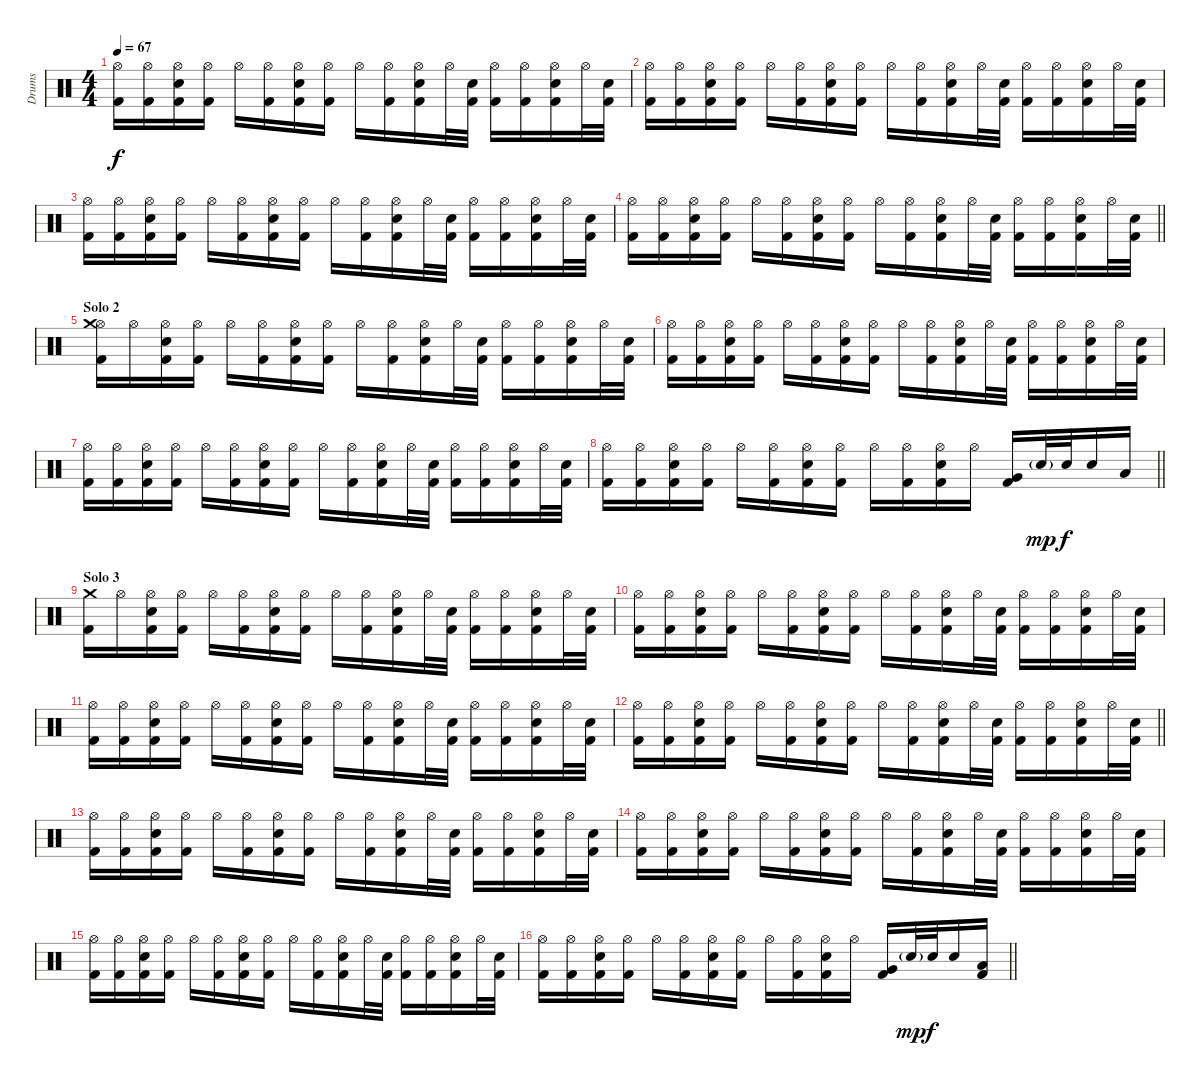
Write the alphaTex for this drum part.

\track ("Drums" "Drums") {instrument percussion}
\staff {score}
\articulation defaults
\ts (4 4)
\tempo 67
\clef neutral
\ks c
("Kick (hit) 2" "Hi-Hat (open)").16{dy f} ("Kick (hit) 2" "Hi-Hat (open)").16 ("Kick (hit) 2" "Snare (hit) 2" "Hi-Hat (open)").16 ("Kick (hit) 2" "Hi-Hat (open)").16 "Hi-Hat (open)".16 ("Kick (hit) 2" "Hi-Hat (open)").16 ("Kick (hit) 2" "Snare (hit) 2" "Hi-Hat (open)").16 ("Kick (hit) 2" "Hi-Hat (open)").16 "Hi-Hat (open)".16 ("Kick (hit) 2" "Hi-Hat (open)").16 ("Kick (hit) 2" "Snare (hit) 2" "Hi-Hat (open)").16 "Hi-Hat (open)".32 ("Kick (hit) 2" "Snare (hit) 2").32 ("Kick (hit) 2" "Hi-Hat (open)").16 ("Kick (hit) 2" "Hi-Hat (open)").16 ("Kick (hit) 2" "Snare (hit) 2" "Hi-Hat (open)").16 "Hi-Hat (open)".32 ("Kick (hit) 2" "Snare (hit) 2").32 |
("Kick (hit) 2" "Hi-Hat (open)").16 ("Kick (hit) 2" "Hi-Hat (open)").16 ("Kick (hit) 2" "Snare (hit) 2" "Hi-Hat (open)").16 ("Kick (hit) 2" "Hi-Hat (open)").16 "Hi-Hat (open)".16 ("Kick (hit) 2" "Hi-Hat (open)").16 ("Kick (hit) 2" "Snare (hit) 2" "Hi-Hat (open)").16 ("Kick (hit) 2" "Hi-Hat (open)").16 "Hi-Hat (open)".16 ("Kick (hit) 2" "Hi-Hat (open)").16 ("Kick (hit) 2" "Snare (hit) 2" "Hi-Hat (open)").16 "Hi-Hat (open)".32 ("Kick (hit) 2" "Snare (hit) 2").32 ("Kick (hit) 2" "Hi-Hat (open)").16 ("Kick (hit) 2" "Hi-Hat (open)").16 ("Kick (hit) 2" "Snare (hit) 2" "Hi-Hat (open)").16 "Hi-Hat (open)".32 ("Kick (hit) 2" "Snare (hit) 2").32 |
("Kick (hit) 2" "Hi-Hat (open)").16 ("Kick (hit) 2" "Hi-Hat (open)").16 ("Kick (hit) 2" "Snare (hit) 2" "Hi-Hat (open)").16 ("Kick (hit) 2" "Hi-Hat (open)").16 "Hi-Hat (open)".16 ("Kick (hit) 2" "Hi-Hat (open)").16 ("Kick (hit) 2" "Snare (hit) 2" "Hi-Hat (open)").16 ("Kick (hit) 2" "Hi-Hat (open)").16 "Hi-Hat (open)".16 ("Kick (hit) 2" "Hi-Hat (open)").16 ("Kick (hit) 2" "Snare (hit) 2" "Hi-Hat (open)").16 "Hi-Hat (open)".32 ("Kick (hit) 2" "Snare (hit) 2").32 ("Kick (hit) 2" "Hi-Hat (open)").16 ("Kick (hit) 2" "Hi-Hat (open)").16 ("Kick (hit) 2" "Snare (hit) 2" "Hi-Hat (open)").16 "Hi-Hat (open)".32 ("Kick (hit) 2" "Snare (hit) 2").32 |
\barLineRight lightlight
("Kick (hit) 2" "Hi-Hat (open)").16 ("Kick (hit) 2" "Hi-Hat (open)").16 ("Kick (hit) 2" "Snare (hit) 2" "Hi-Hat (open)").16 ("Kick (hit) 2" "Hi-Hat (open)").16 "Hi-Hat (open)".16 ("Kick (hit) 2" "Hi-Hat (open)").16 ("Kick (hit) 2" "Snare (hit) 2" "Hi-Hat (open)").16 ("Kick (hit) 2" "Hi-Hat (open)").16 "Hi-Hat (open)".16 ("Kick (hit) 2" "Hi-Hat (open)").16 ("Kick (hit) 2" "Snare (hit) 2" "Hi-Hat (open)").16 "Hi-Hat (open)".32 ("Kick (hit) 2" "Snare (hit) 2").32 ("Kick (hit) 2" "Hi-Hat (open)").16 ("Kick (hit) 2" "Hi-Hat (open)").16 ("Kick (hit) 2" "Snare (hit) 2" "Hi-Hat (open)").16 "Hi-Hat (open)".32 ("Kick (hit) 2" "Snare (hit) 2").32 |
\section ("" "Solo 2")
("Kick (hit) 2" "Hi-Hat (open)" "Crash medium (hit)").16 "Hi-Hat (open)".16 ("Kick (hit) 2" "Snare (hit) 2" "Hi-Hat (open)").16 ("Kick (hit) 2" "Hi-Hat (open)").16 "Hi-Hat (open)".16 ("Kick (hit) 2" "Hi-Hat (open)").16 ("Kick (hit) 2" "Snare (hit) 2" "Hi-Hat (open)").16 ("Kick (hit) 2" "Hi-Hat (open)").16 "Hi-Hat (open)".16 ("Kick (hit) 2" "Hi-Hat (open)").16 ("Kick (hit) 2" "Snare (hit) 2" "Hi-Hat (open)").16 "Hi-Hat (open)".32 ("Kick (hit) 2" "Snare (hit) 2").32 ("Kick (hit) 2" "Hi-Hat (open)").16 ("Kick (hit) 2" "Hi-Hat (open)").16 ("Kick (hit) 2" "Snare (hit) 2" "Hi-Hat (open)").16 "Hi-Hat (open)".32 ("Kick (hit) 2" "Snare (hit) 2").32 |
("Kick (hit) 2" "Hi-Hat (open)").16 ("Kick (hit) 2" "Hi-Hat (open)").16 ("Kick (hit) 2" "Snare (hit) 2" "Hi-Hat (open)").16 ("Kick (hit) 2" "Hi-Hat (open)").16 "Hi-Hat (open)".16 ("Kick (hit) 2" "Hi-Hat (open)").16 ("Kick (hit) 2" "Snare (hit) 2" "Hi-Hat (open)").16 ("Kick (hit) 2" "Hi-Hat (open)").16 "Hi-Hat (open)".16 ("Kick (hit) 2" "Hi-Hat (open)").16 ("Kick (hit) 2" "Snare (hit) 2" "Hi-Hat (open)").16 "Hi-Hat (open)".32 ("Kick (hit) 2" "Snare (hit) 2").32 ("Kick (hit) 2" "Hi-Hat (open)").16 ("Kick (hit) 2" "Hi-Hat (open)").16 ("Kick (hit) 2" "Snare (hit) 2" "Hi-Hat (open)").16 "Hi-Hat (open)".32 ("Kick (hit) 2" "Snare (hit) 2").32 |
("Kick (hit) 2" "Hi-Hat (open)").16 ("Kick (hit) 2" "Hi-Hat (open)").16 ("Kick (hit) 2" "Snare (hit) 2" "Hi-Hat (open)").16 ("Kick (hit) 2" "Hi-Hat (open)").16 "Hi-Hat (open)".16 ("Kick (hit) 2" "Hi-Hat (open)").16 ("Kick (hit) 2" "Snare (hit) 2" "Hi-Hat (open)").16 ("Kick (hit) 2" "Hi-Hat (open)").16 "Hi-Hat (open)".16 ("Kick (hit) 2" "Hi-Hat (open)").16 ("Kick (hit) 2" "Snare (hit) 2" "Hi-Hat (open)").16 "Hi-Hat (open)".32 ("Kick (hit) 2" "Snare (hit) 2").32 ("Kick (hit) 2" "Hi-Hat (open)").16 ("Kick (hit) 2" "Hi-Hat (open)").16 ("Kick (hit) 2" "Snare (hit) 2" "Hi-Hat (open)").16 "Hi-Hat (open)".32 ("Kick (hit) 2" "Snare (hit) 2").32 |
\barLineRight lightlight
("Kick (hit) 2" "Hi-Hat (open)").16 ("Kick (hit) 2" "Hi-Hat (open)").16 ("Kick (hit) 2" "Snare (hit) 2" "Hi-Hat (open)").16 ("Kick (hit) 2" "Hi-Hat (open)").16 "Hi-Hat (open)".16 ("Kick (hit) 2" "Hi-Hat (open)").16 ("Kick (hit) 2" "Snare (hit) 2" "Hi-Hat (open)").16 ("Kick (hit) 2" "Hi-Hat (open)").16 "Hi-Hat (open)".16 ("Kick (hit) 2" "Hi-Hat (open)").16 ("Kick (hit) 2" "Snare (hit) 2" "Hi-Hat (open)").16 "Hi-Hat (open)".16 ("Kick (hit) 2" "Very Low Tom (hit)").16 "Snare (hit) 2"{g}.32{dy mp} "Snare (hit) 2".32{dy f} "Snare (hit) 2".16 "Low Floor Tom (hit)".16 |
\section ("" "Solo 3")
("Kick (hit) 2" "Crash medium (hit)").16 "Hi-Hat (open)".16 ("Kick (hit) 2" "Snare (hit) 2" "Hi-Hat (open)").16 ("Kick (hit) 2" "Hi-Hat (open)").16 "Hi-Hat (open)".16 ("Kick (hit) 2" "Hi-Hat (open)").16 ("Kick (hit) 2" "Snare (hit) 2" "Hi-Hat (open)").16 ("Kick (hit) 2" "Hi-Hat (open)").16 "Hi-Hat (open)".16 ("Kick (hit) 2" "Hi-Hat (open)").16 ("Kick (hit) 2" "Snare (hit) 2" "Hi-Hat (open)").16 "Hi-Hat (open)".32 ("Kick (hit) 2" "Snare (hit) 2").32 ("Kick (hit) 2" "Hi-Hat (open)").16 ("Kick (hit) 2" "Hi-Hat (open)").16 ("Kick (hit) 2" "Snare (hit) 2" "Hi-Hat (open)").16 "Hi-Hat (open)".32 ("Kick (hit) 2" "Snare (hit) 2").32 |
("Kick (hit) 2" "Hi-Hat (open)").16 ("Kick (hit) 2" "Hi-Hat (open)").16 ("Kick (hit) 2" "Snare (hit) 2" "Hi-Hat (open)").16 ("Kick (hit) 2" "Hi-Hat (open)").16 "Hi-Hat (open)".16 ("Kick (hit) 2" "Hi-Hat (open)").16 ("Kick (hit) 2" "Snare (hit) 2" "Hi-Hat (open)").16 ("Kick (hit) 2" "Hi-Hat (open)").16 "Hi-Hat (open)".16 ("Kick (hit) 2" "Hi-Hat (open)").16 ("Kick (hit) 2" "Snare (hit) 2" "Hi-Hat (open)").16 "Hi-Hat (open)".32 ("Kick (hit) 2" "Snare (hit) 2").32 ("Kick (hit) 2" "Hi-Hat (open)").16 ("Kick (hit) 2" "Hi-Hat (open)").16 ("Kick (hit) 2" "Snare (hit) 2" "Hi-Hat (open)").16 "Hi-Hat (open)".32 ("Kick (hit) 2" "Snare (hit) 2").32 |
("Kick (hit) 2" "Hi-Hat (open)").16 ("Kick (hit) 2" "Hi-Hat (open)").16 ("Kick (hit) 2" "Snare (hit) 2" "Hi-Hat (open)").16 ("Kick (hit) 2" "Hi-Hat (open)").16 "Hi-Hat (open)".16 ("Kick (hit) 2" "Hi-Hat (open)").16 ("Kick (hit) 2" "Snare (hit) 2" "Hi-Hat (open)").16 ("Kick (hit) 2" "Hi-Hat (open)").16 "Hi-Hat (open)".16 ("Kick (hit) 2" "Hi-Hat (open)").16 ("Kick (hit) 2" "Snare (hit) 2" "Hi-Hat (open)").16 "Hi-Hat (open)".32 ("Kick (hit) 2" "Snare (hit) 2").32 ("Kick (hit) 2" "Hi-Hat (open)").16 ("Kick (hit) 2" "Hi-Hat (open)").16 ("Kick (hit) 2" "Snare (hit) 2" "Hi-Hat (open)").16 "Hi-Hat (open)".32 ("Kick (hit) 2" "Snare (hit) 2").32 |
\barLineRight lightlight
("Kick (hit) 2" "Hi-Hat (open)").16 ("Kick (hit) 2" "Hi-Hat (open)").16 ("Kick (hit) 2" "Snare (hit) 2" "Hi-Hat (open)").16 ("Kick (hit) 2" "Hi-Hat (open)").16 "Hi-Hat (open)".16 ("Kick (hit) 2" "Hi-Hat (open)").16 ("Kick (hit) 2" "Snare (hit) 2" "Hi-Hat (open)").16 ("Kick (hit) 2" "Hi-Hat (open)").16 "Hi-Hat (open)".16 ("Kick (hit) 2" "Hi-Hat (open)").16 ("Kick (hit) 2" "Snare (hit) 2" "Hi-Hat (open)").16 "Hi-Hat (open)".32 ("Kick (hit) 2" "Snare (hit) 2").32 ("Kick (hit) 2" "Hi-Hat (open)").16 ("Kick (hit) 2" "Hi-Hat (open)").16 ("Kick (hit) 2" "Snare (hit) 2" "Hi-Hat (open)").16 "Hi-Hat (open)".32 ("Kick (hit) 2" "Snare (hit) 2").32 |
("Kick (hit) 2" "Hi-Hat (open)").16 ("Kick (hit) 2" "Hi-Hat (open)").16 ("Kick (hit) 2" "Snare (hit) 2" "Hi-Hat (open)").16 ("Kick (hit) 2" "Hi-Hat (open)").16 "Hi-Hat (open)".16 ("Kick (hit) 2" "Hi-Hat (open)").16 ("Kick (hit) 2" "Snare (hit) 2" "Hi-Hat (open)").16 ("Kick (hit) 2" "Hi-Hat (open)").16 "Hi-Hat (open)".16 ("Kick (hit) 2" "Hi-Hat (open)").16 ("Kick (hit) 2" "Snare (hit) 2" "Hi-Hat (open)").16 "Hi-Hat (open)".32 ("Kick (hit) 2" "Snare (hit) 2").32 ("Kick (hit) 2" "Hi-Hat (open)").16 ("Kick (hit) 2" "Hi-Hat (open)").16 ("Kick (hit) 2" "Snare (hit) 2" "Hi-Hat (open)").16 "Hi-Hat (open)".32 ("Kick (hit) 2" "Snare (hit) 2").32 |
("Kick (hit) 2" "Hi-Hat (open)").16 ("Kick (hit) 2" "Hi-Hat (open)").16 ("Kick (hit) 2" "Snare (hit) 2" "Hi-Hat (open)").16 ("Kick (hit) 2" "Hi-Hat (open)").16 "Hi-Hat (open)".16 ("Kick (hit) 2" "Hi-Hat (open)").16 ("Kick (hit) 2" "Snare (hit) 2" "Hi-Hat (open)").16 ("Kick (hit) 2" "Hi-Hat (open)").16 "Hi-Hat (open)".16 ("Kick (hit) 2" "Hi-Hat (open)").16 ("Kick (hit) 2" "Snare (hit) 2" "Hi-Hat (open)").16 "Hi-Hat (open)".32 ("Kick (hit) 2" "Snare (hit) 2").32 ("Kick (hit) 2" "Hi-Hat (open)").16 ("Kick (hit) 2" "Hi-Hat (open)").16 ("Kick (hit) 2" "Snare (hit) 2" "Hi-Hat (open)").16 "Hi-Hat (open)".32 ("Kick (hit) 2" "Snare (hit) 2").32 |
("Kick (hit) 2" "Hi-Hat (open)").16 ("Kick (hit) 2" "Hi-Hat (open)").16 ("Kick (hit) 2" "Snare (hit) 2" "Hi-Hat (open)").16 ("Kick (hit) 2" "Hi-Hat (open)").16 "Hi-Hat (open)".16 ("Kick (hit) 2" "Hi-Hat (open)").16 ("Kick (hit) 2" "Snare (hit) 2" "Hi-Hat (open)").16 ("Kick (hit) 2" "Hi-Hat (open)").16 "Hi-Hat (open)".16 ("Kick (hit) 2" "Hi-Hat (open)").16 ("Kick (hit) 2" "Snare (hit) 2" "Hi-Hat (open)").16 "Hi-Hat (open)".32 ("Kick (hit) 2" "Snare (hit) 2").32 ("Kick (hit) 2" "Hi-Hat (open)").16 ("Kick (hit) 2" "Hi-Hat (open)").16 ("Kick (hit) 2" "Snare (hit) 2" "Hi-Hat (open)").16 "Hi-Hat (open)".32 ("Kick (hit) 2" "Snare (hit) 2").32 |
\barLineRight lightlight
("Kick (hit) 2" "Hi-Hat (open)").16 ("Kick (hit) 2" "Hi-Hat (open)").16 ("Kick (hit) 2" "Snare (hit) 2" "Hi-Hat (open)").16 ("Kick (hit) 2" "Hi-Hat (open)").16 "Hi-Hat (open)".16 ("Kick (hit) 2" "Hi-Hat (open)").16 ("Kick (hit) 2" "Snare (hit) 2" "Hi-Hat (open)").16 ("Kick (hit) 2" "Hi-Hat (open)").16 "Hi-Hat (open)".16 ("Kick (hit) 2" "Hi-Hat (open)").16 ("Kick (hit) 2" "Snare (hit) 2" "Hi-Hat (open)").16 "Hi-Hat (open)".16 ("Kick (hit) 2" "Very Low Tom (hit)").16 "Snare (hit) 2"{g}.32{dy mp} "Snare (hit) 2".32{dy f} "Snare (hit) 2".16 ("Kick (hit) 2" "Low Floor Tom (hit)").16
